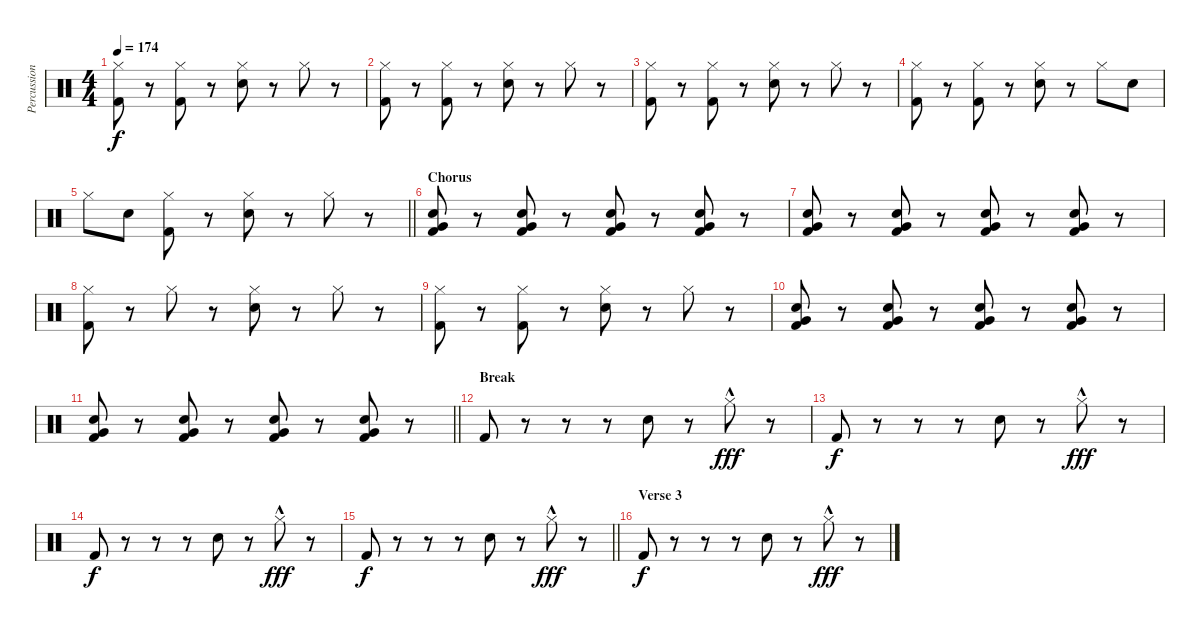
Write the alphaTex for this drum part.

\track ("Percussion" "Percussion") {instrument percussion}
\staff {score}
\articulation defaults
\ts (4 4)
\tempo 174
\clef neutral
\ks c
("Hi-Hat (closed)" "Kick (hit) 2").8{dy f} r.8 ("Hi-Hat (closed)" "Kick (hit) 2").8 r.8 ("Hi-Hat (closed)" "Snare (hit) 2").8 r.8 "Hi-Hat (closed)".8 r.8 |
("Hi-Hat (closed)" "Kick (hit) 2").8 r.8 ("Hi-Hat (closed)" "Kick (hit) 2").8 r.8 ("Hi-Hat (closed)" "Snare (hit) 2").8 r.8 "Hi-Hat (closed)".8 r.8 |
("Hi-Hat (closed)" "Kick (hit) 2").8 r.8 ("Hi-Hat (closed)" "Kick (hit) 2").8 r.8 ("Hi-Hat (closed)" "Snare (hit) 2").8 r.8 "Hi-Hat (closed)".8 r.8 |
("Hi-Hat (closed)" "Kick (hit) 2").8 r.8 ("Hi-Hat (closed)" "Kick (hit) 2").8 r.8 ("Hi-Hat (closed)" "Snare (hit) 2").8 r.8 "Hi-Hat (closed)".8 "Snare (hit) 2".8 |
\barLineRight lightlight "Hi-Hat (closed)".8 "Snare (hit) 2".8
("Hi-Hat (closed)" "Kick (hit) 2").8 r.8 ("Hi-Hat (closed)" "Snare (hit) 2").8 r.8 "Hi-Hat (closed)".8 r.8 |
\section ("" "Chorus")
("Snare (hit) 2" "Very Low Tom (hit)" "Kick (hit) 2").8 r.8 ("Snare (hit) 2" "Very Low Tom (hit)" "Kick (hit) 2").8 r.8 ("Snare (hit) 2" "Very Low Tom (hit)" "Kick (hit) 2").8 r.8 ("Snare (hit) 2" "Very Low Tom (hit)" "Kick (hit) 2").8 r.8 |
("Snare (hit) 2" "Very Low Tom (hit)" "Kick (hit) 2").8 r.8 ("Snare (hit) 2" "Very Low Tom (hit)" "Kick (hit) 2").8 r.8 ("Snare (hit) 2" "Very Low Tom (hit)" "Kick (hit) 2").8 r.8 ("Snare (hit) 2" "Very Low Tom (hit)" "Kick (hit) 2").8 r.8 |
("Hi-Hat (closed)" "Kick (hit) 2").8 r.8 "Hi-Hat (closed)".8 r.8 ("Hi-Hat (closed)" "Snare (hit) 2").8 r.8 "Hi-Hat (closed)".8 r.8 |
("Hi-Hat (closed)" "Kick (hit) 2").8 r.8 ("Hi-Hat (closed)" "Kick (hit) 2").8 r.8 ("Hi-Hat (closed)" "Snare (hit) 2").8 r.8 "Hi-Hat (closed)".8 r.8 |
("Snare (hit) 2" "Very Low Tom (hit)" "Kick (hit) 2").8 r.8 ("Snare (hit) 2" "Very Low Tom (hit)" "Kick (hit) 2").8 r.8 ("Snare (hit) 2" "Very Low Tom (hit)" "Kick (hit) 2").8 r.8 ("Snare (hit) 2" "Very Low Tom (hit)" "Kick (hit) 2").8 r.8 |
\barLineRight lightlight
("Snare (hit) 2" "Very Low Tom (hit)" "Kick (hit) 2").8 r.8 ("Snare (hit) 2" "Very Low Tom (hit)" "Kick (hit) 2").8 r.8 ("Snare (hit) 2" "Very Low Tom (hit)" "Kick (hit) 2").8 r.8 ("Snare (hit) 2" "Very Low Tom (hit)" "Kick (hit) 2").8 r.8 |
\section ("" "Break")
"Kick (hit) 2".8 r.8 r.8 r.8 "Snare (hit) 2".8 r.8 "Hi-Hat (closed)"{hac}.8{dy fff} r.8 |
"Kick (hit) 2".8{dy f} r.8 r.8 r.8 "Snare (hit) 2".8 r.8 "Hi-Hat (closed)"{hac}.8{dy fff} r.8 |
"Kick (hit) 2".8{dy f} r.8 r.8 r.8 "Snare (hit) 2".8 r.8 "Hi-Hat (closed)"{hac}.8{dy fff} r.8 |
\barLineRight lightlight "Kick (hit) 2".8{dy f}
r.8 r.8 r.8 "Snare (hit) 2".8 r.8 "Hi-Hat (closed)"{hac}.8{dy fff} r.8 |
\section ("" "Verse 3")
"Kick (hit) 2".8{dy f} r.8 r.8 r.8 "Snare (hit) 2".8 r.8 "Hi-Hat (closed)"{hac}.8{dy fff} r.8
